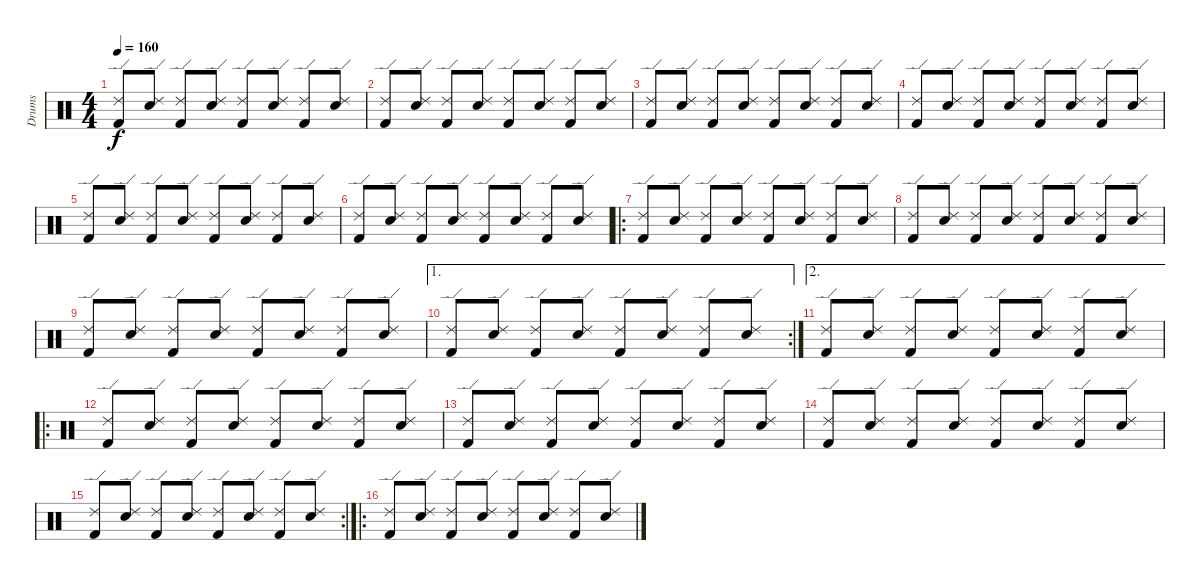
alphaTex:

\track ("Drums" "Drums") {instrument percussion}
\staff {score}
\articulation defaults
\ts (4 4)
\tempo 160
\clef neutral
\ks c
("Ride (edge) 2" "Kick (hit) 2").8{dy f} ("Ride (edge) 2" "Snare (hit) 2").8 ("Ride (edge) 2" "Kick (hit) 2").8 ("Ride (edge) 2" "Snare (hit) 2").8 ("Ride (edge) 2" "Kick (hit) 2").8 ("Ride (edge) 2" "Snare (hit) 2").8 ("Ride (edge) 2" "Kick (hit) 2").8 ("Ride (edge) 2" "Snare (hit) 2").8 |
("Ride (edge) 2" "Kick (hit) 2").8 ("Ride (edge) 2" "Snare (hit) 2").8 ("Ride (edge) 2" "Kick (hit) 2").8 ("Ride (edge) 2" "Snare (hit) 2").8 ("Ride (edge) 2" "Kick (hit) 2").8 ("Ride (edge) 2" "Snare (hit) 2").8 ("Ride (edge) 2" "Kick (hit) 2").8 ("Ride (edge) 2" "Snare (hit) 2").8 |
("Ride (edge) 2" "Kick (hit) 2").8 ("Ride (edge) 2" "Snare (hit) 2").8 ("Ride (edge) 2" "Kick (hit) 2").8 ("Ride (edge) 2" "Snare (hit) 2").8 ("Ride (edge) 2" "Kick (hit) 2").8 ("Ride (edge) 2" "Snare (hit) 2").8 ("Ride (edge) 2" "Kick (hit) 2").8 ("Ride (edge) 2" "Snare (hit) 2").8 |
("Ride (edge) 2" "Kick (hit) 2").8 ("Ride (edge) 2" "Snare (hit) 2").8 ("Ride (edge) 2" "Kick (hit) 2").8 ("Ride (edge) 2" "Snare (hit) 2").8 ("Ride (edge) 2" "Kick (hit) 2").8 ("Ride (edge) 2" "Snare (hit) 2").8 ("Ride (edge) 2" "Kick (hit) 2").8 ("Ride (edge) 2" "Snare (hit) 2").8 |
("Ride (edge) 2" "Kick (hit) 2").8 ("Ride (edge) 2" "Snare (hit) 2").8 ("Ride (edge) 2" "Kick (hit) 2").8 ("Ride (edge) 2" "Snare (hit) 2").8 ("Ride (edge) 2" "Kick (hit) 2").8 ("Ride (edge) 2" "Snare (hit) 2").8 ("Ride (edge) 2" "Kick (hit) 2").8 ("Ride (edge) 2" "Snare (hit) 2").8 |
("Ride (edge) 2" "Kick (hit) 2").8 ("Ride (edge) 2" "Snare (hit) 2").8 ("Ride (edge) 2" "Kick (hit) 2").8 ("Ride (edge) 2" "Snare (hit) 2").8 ("Ride (edge) 2" "Kick (hit) 2").8 ("Ride (edge) 2" "Snare (hit) 2").8 ("Ride (edge) 2" "Kick (hit) 2").8 ("Ride (edge) 2" "Snare (hit) 2").8 |
\ro
("Ride (edge) 2" "Kick (hit) 2").8 ("Ride (edge) 2" "Snare (hit) 2").8 ("Ride (edge) 2" "Kick (hit) 2").8 ("Ride (edge) 2" "Snare (hit) 2").8 ("Ride (edge) 2" "Kick (hit) 2").8 ("Ride (edge) 2" "Snare (hit) 2").8 ("Ride (edge) 2" "Kick (hit) 2").8 ("Ride (edge) 2" "Snare (hit) 2").8 |
("Ride (edge) 2" "Kick (hit) 2").8 ("Ride (edge) 2" "Snare (hit) 2").8 ("Ride (edge) 2" "Kick (hit) 2").8 ("Ride (edge) 2" "Snare (hit) 2").8 ("Ride (edge) 2" "Kick (hit) 2").8 ("Ride (edge) 2" "Snare (hit) 2").8 ("Ride (edge) 2" "Kick (hit) 2").8 ("Ride (edge) 2" "Snare (hit) 2").8 |
("Ride (edge) 2" "Kick (hit) 2").8 ("Ride (edge) 2" "Snare (hit) 2").8 ("Ride (edge) 2" "Kick (hit) 2").8 ("Ride (edge) 2" "Snare (hit) 2").8 ("Ride (edge) 2" "Kick (hit) 2").8 ("Ride (edge) 2" "Snare (hit) 2").8 ("Ride (edge) 2" "Kick (hit) 2").8 ("Ride (edge) 2" "Snare (hit) 2").8 |
\ae 1
\rc 2
("Ride (edge) 2" "Kick (hit) 2").8 ("Ride (edge) 2" "Snare (hit) 2").8 ("Ride (edge) 2" "Kick (hit) 2").8 ("Ride (edge) 2" "Snare (hit) 2").8 ("Ride (edge) 2" "Kick (hit) 2").8 ("Ride (edge) 2" "Snare (hit) 2").8 ("Ride (edge) 2" "Kick (hit) 2").8 ("Ride (edge) 2" "Snare (hit) 2").8 |
\ae 2
("Ride (edge) 2" "Kick (hit) 2").8 ("Ride (edge) 2" "Snare (hit) 2").8 ("Ride (edge) 2" "Kick (hit) 2").8 ("Ride (edge) 2" "Snare (hit) 2").8 ("Ride (edge) 2" "Kick (hit) 2").8 ("Ride (edge) 2" "Snare (hit) 2").8 ("Ride (edge) 2" "Kick (hit) 2").8 ("Ride (edge) 2" "Snare (hit) 2").8 |
\ro
("Ride (edge) 2" "Kick (hit) 2").8 ("Ride (edge) 2" "Snare (hit) 2").8 ("Ride (edge) 2" "Kick (hit) 2").8 ("Ride (edge) 2" "Snare (hit) 2").8 ("Ride (edge) 2" "Kick (hit) 2").8 ("Ride (edge) 2" "Snare (hit) 2").8 ("Ride (edge) 2" "Kick (hit) 2").8 ("Ride (edge) 2" "Snare (hit) 2").8 |
("Ride (edge) 2" "Kick (hit) 2").8 ("Ride (edge) 2" "Snare (hit) 2").8 ("Ride (edge) 2" "Kick (hit) 2").8 ("Ride (edge) 2" "Snare (hit) 2").8 ("Ride (edge) 2" "Kick (hit) 2").8 ("Ride (edge) 2" "Snare (hit) 2").8 ("Ride (edge) 2" "Kick (hit) 2").8 ("Ride (edge) 2" "Snare (hit) 2").8 |
("Ride (edge) 2" "Kick (hit) 2").8 ("Ride (edge) 2" "Snare (hit) 2").8 ("Ride (edge) 2" "Kick (hit) 2").8 ("Ride (edge) 2" "Snare (hit) 2").8 ("Ride (edge) 2" "Kick (hit) 2").8 ("Ride (edge) 2" "Snare (hit) 2").8 ("Ride (edge) 2" "Kick (hit) 2").8 ("Ride (edge) 2" "Snare (hit) 2").8 |
\rc 2
("Ride (edge) 2" "Kick (hit) 2").8 ("Ride (edge) 2" "Snare (hit) 2").8 ("Ride (edge) 2" "Kick (hit) 2").8 ("Ride (edge) 2" "Snare (hit) 2").8 ("Ride (edge) 2" "Kick (hit) 2").8 ("Ride (edge) 2" "Snare (hit) 2").8 ("Ride (edge) 2" "Kick (hit) 2").8 ("Ride (edge) 2" "Snare (hit) 2").8 |
\ro
("Ride (edge) 2" "Kick (hit) 2").8 ("Ride (edge) 2" "Snare (hit) 2").8 ("Ride (edge) 2" "Kick (hit) 2").8 ("Ride (edge) 2" "Snare (hit) 2").8 ("Ride (edge) 2" "Kick (hit) 2").8 ("Ride (edge) 2" "Snare (hit) 2").8 ("Ride (edge) 2" "Kick (hit) 2").8 ("Ride (edge) 2" "Snare (hit) 2").8
